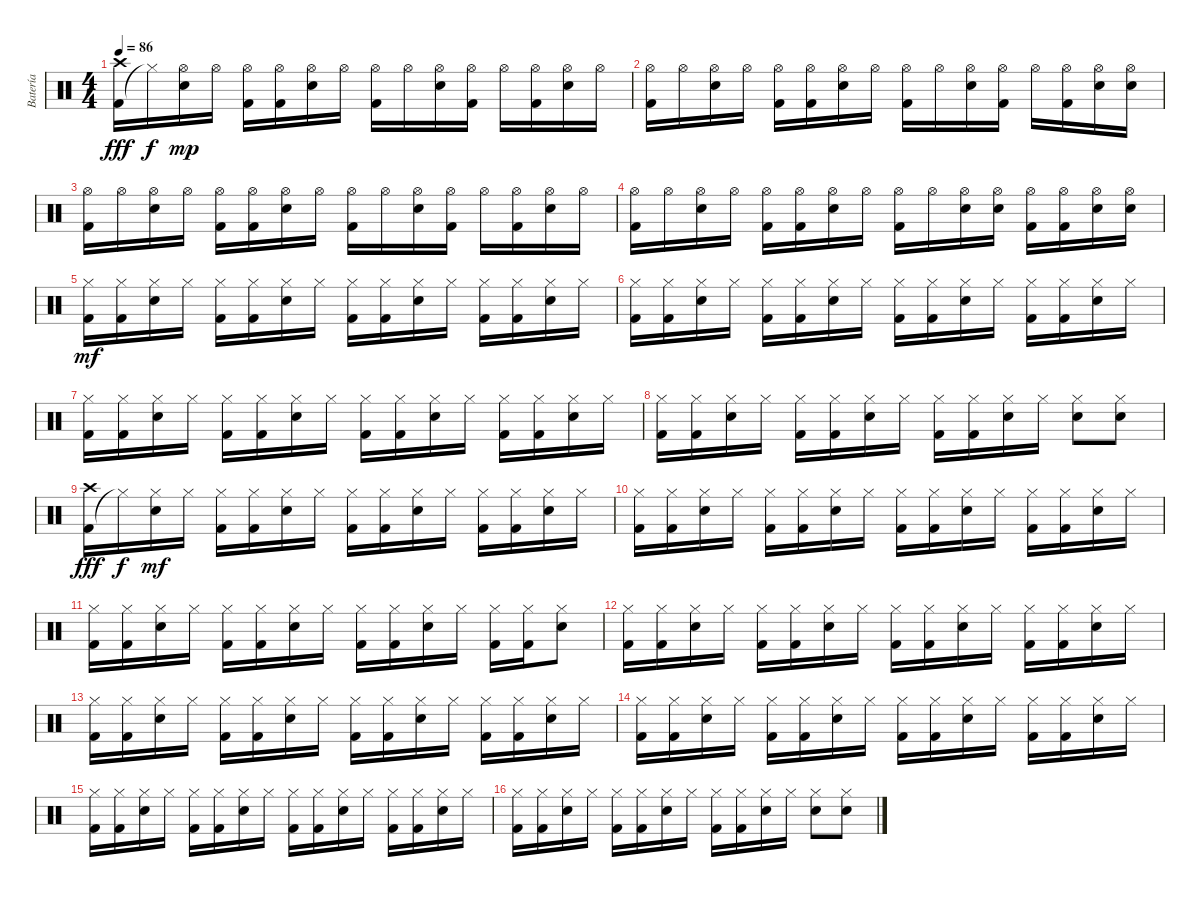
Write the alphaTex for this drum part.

\track ("Batería" "Batería") {instrument percussion}
\staff {score}
\articulation defaults
\ts (4 4)
\tempo 86
\clef neutral
\ks c
("Kick (hit) 2" "Crash high (hit)").16{dy fff} "Hi-Hat (closed)"{t}.16{dy f} ("Electric Snare (hit)" "Hi-Hat (open)").16{dy mp} "Hi-Hat (open)".16 ("Kick (hit) 2" "Hi-Hat (open)").16 ("Kick (hit) 2" "Hi-Hat (open)").16 ("Electric Snare (hit)" "Hi-Hat (open)").16 "Hi-Hat (open)".16 ("Kick (hit) 2" "Hi-Hat (open)").16 "Hi-Hat (open)".16 ("Electric Snare (hit)" "Hi-Hat (open)").16 ("Kick (hit) 2" "Hi-Hat (open)").16 "Hi-Hat (open)".16 ("Kick (hit) 2" "Hi-Hat (open)").16 ("Electric Snare (hit)" "Hi-Hat (open)").16 "Hi-Hat (open)".16 |
("Kick (hit) 2" "Hi-Hat (open)").16 "Hi-Hat (open)".16 ("Electric Snare (hit)" "Hi-Hat (open)").16 "Hi-Hat (open)".16 ("Kick (hit) 2" "Hi-Hat (open)").16 ("Kick (hit) 2" "Hi-Hat (open)").16 ("Electric Snare (hit)" "Hi-Hat (open)").16 "Hi-Hat (open)".16 ("Kick (hit) 2" "Hi-Hat (open)").16 "Hi-Hat (open)".16 ("Electric Snare (hit)" "Hi-Hat (open)").16 ("Kick (hit) 2" "Hi-Hat (open)").16 "Hi-Hat (open)".16 ("Kick (hit) 2" "Hi-Hat (open)").16 ("Electric Snare (hit)" "Hi-Hat (open)").16 ("Electric Snare (hit)" "Hi-Hat (open)").16 |
("Kick (hit) 2" "Hi-Hat (open)").16 "Hi-Hat (open)".16 ("Electric Snare (hit)" "Hi-Hat (open)").16 "Hi-Hat (open)".16 ("Kick (hit) 2" "Hi-Hat (open)").16 ("Kick (hit) 2" "Hi-Hat (open)").16 ("Electric Snare (hit)" "Hi-Hat (open)").16 "Hi-Hat (open)".16 ("Kick (hit) 2" "Hi-Hat (open)").16 "Hi-Hat (open)".16 ("Electric Snare (hit)" "Hi-Hat (open)").16 ("Kick (hit) 2" "Hi-Hat (open)").16 "Hi-Hat (open)".16 ("Kick (hit) 2" "Hi-Hat (open)").16 ("Electric Snare (hit)" "Hi-Hat (open)").16 "Hi-Hat (open)".16 |
("Kick (hit) 2" "Hi-Hat (open)").16 "Hi-Hat (open)".16 ("Electric Snare (hit)" "Hi-Hat (open)").16 "Hi-Hat (open)".16 ("Kick (hit) 2" "Hi-Hat (open)").16 ("Kick (hit) 2" "Hi-Hat (open)").16 ("Electric Snare (hit)" "Hi-Hat (open)").16 "Hi-Hat (open)".16 ("Kick (hit) 2" "Hi-Hat (open)").16 "Hi-Hat (open)".16 ("Electric Snare (hit)" "Hi-Hat (open)").16 ("Electric Snare (hit)" "Hi-Hat (open)").16 ("Kick (hit) 2" "Hi-Hat (open)").16 ("Kick (hit) 2" "Hi-Hat (open)").16 ("Electric Snare (hit)" "Hi-Hat (open)").16 ("Electric Snare (hit)" "Hi-Hat (open)").16 |
("Kick (hit) 2" "Hi-Hat (closed)").16{dy mf} ("Kick (hit) 2" "Hi-Hat (closed)").16 ("Electric Snare (hit)" "Hi-Hat (closed)").16 "Hi-Hat (closed)".16 ("Kick (hit) 2" "Hi-Hat (closed)").16 ("Kick (hit) 2" "Hi-Hat (closed)").16 ("Electric Snare (hit)" "Hi-Hat (closed)").16 "Hi-Hat (closed)".16 ("Kick (hit) 2" "Hi-Hat (closed)").16 ("Kick (hit) 2" "Hi-Hat (closed)").16 ("Electric Snare (hit)" "Hi-Hat (closed)").16 "Hi-Hat (closed)".16 ("Kick (hit) 2" "Hi-Hat (closed)").16 ("Kick (hit) 2" "Hi-Hat (closed)").16 ("Electric Snare (hit)" "Hi-Hat (closed)").16 "Hi-Hat (closed)".16 |
("Kick (hit) 2" "Hi-Hat (closed)").16 ("Kick (hit) 2" "Hi-Hat (closed)").16 ("Electric Snare (hit)" "Hi-Hat (closed)").16 "Hi-Hat (closed)".16 ("Kick (hit) 2" "Hi-Hat (closed)").16 ("Kick (hit) 2" "Hi-Hat (closed)").16 ("Electric Snare (hit)" "Hi-Hat (closed)").16 "Hi-Hat (closed)".16 ("Kick (hit) 2" "Hi-Hat (closed)").16 ("Kick (hit) 2" "Hi-Hat (closed)").16 ("Electric Snare (hit)" "Hi-Hat (closed)").16 "Hi-Hat (closed)".16 ("Kick (hit) 2" "Hi-Hat (closed)").16 ("Kick (hit) 2" "Hi-Hat (closed)").16 ("Electric Snare (hit)" "Hi-Hat (closed)").16 "Hi-Hat (closed)".16 |
("Kick (hit) 2" "Hi-Hat (closed)").16 ("Kick (hit) 2" "Hi-Hat (closed)").16 ("Electric Snare (hit)" "Hi-Hat (closed)").16 "Hi-Hat (closed)".16 ("Kick (hit) 2" "Hi-Hat (closed)").16 ("Kick (hit) 2" "Hi-Hat (closed)").16 ("Electric Snare (hit)" "Hi-Hat (closed)").16 "Hi-Hat (closed)".16 ("Kick (hit) 2" "Hi-Hat (closed)").16 ("Kick (hit) 2" "Hi-Hat (closed)").16 ("Electric Snare (hit)" "Hi-Hat (closed)").16 "Hi-Hat (closed)".16 ("Kick (hit) 2" "Hi-Hat (closed)").16 ("Kick (hit) 2" "Hi-Hat (closed)").16 ("Electric Snare (hit)" "Hi-Hat (closed)").16 "Hi-Hat (closed)".16 |
("Kick (hit) 2" "Hi-Hat (closed)").16 ("Kick (hit) 2" "Hi-Hat (closed)").16 ("Electric Snare (hit)" "Hi-Hat (closed)").16 "Hi-Hat (closed)".16 ("Kick (hit) 2" "Hi-Hat (closed)").16 ("Kick (hit) 2" "Hi-Hat (closed)").16 ("Electric Snare (hit)" "Hi-Hat (closed)").16 "Hi-Hat (closed)".16 ("Kick (hit) 2" "Hi-Hat (closed)").16 ("Kick (hit) 2" "Hi-Hat (closed)").16 ("Electric Snare (hit)" "Hi-Hat (closed)").16 "Hi-Hat (closed)".16 ("Electric Snare (hit)" "Hi-Hat (closed)").8 ("Electric Snare (hit)" "Hi-Hat (closed)").8 |
("Kick (hit) 2" "Crash high (hit)").16{dy fff} "Hi-Hat (closed)"{t}.16{dy f} ("Electric Snare (hit)" "Hi-Hat (closed)").16{dy mf} "Hi-Hat (closed)".16 ("Kick (hit) 2" "Hi-Hat (closed)").16 ("Kick (hit) 2" "Hi-Hat (closed)").16 ("Electric Snare (hit)" "Hi-Hat (closed)").16 "Hi-Hat (closed)".16 ("Kick (hit) 2" "Hi-Hat (closed)").16 ("Kick (hit) 2" "Hi-Hat (closed)").16 ("Electric Snare (hit)" "Hi-Hat (closed)").16 "Hi-Hat (closed)".16 ("Kick (hit) 2" "Hi-Hat (closed)").16 ("Kick (hit) 2" "Hi-Hat (closed)").16 ("Electric Snare (hit)" "Hi-Hat (closed)").16 "Hi-Hat (closed)".16 |
("Kick (hit) 2" "Hi-Hat (closed)").16 ("Kick (hit) 2" "Hi-Hat (closed)").16 ("Electric Snare (hit)" "Hi-Hat (closed)").16 "Hi-Hat (closed)".16 ("Kick (hit) 2" "Hi-Hat (closed)").16 ("Kick (hit) 2" "Hi-Hat (closed)").16 ("Electric Snare (hit)" "Hi-Hat (closed)").16 "Hi-Hat (closed)".16 ("Kick (hit) 2" "Hi-Hat (closed)").16 ("Kick (hit) 2" "Hi-Hat (closed)").16 ("Electric Snare (hit)" "Hi-Hat (closed)").16 "Hi-Hat (closed)".16 ("Kick (hit) 2" "Hi-Hat (closed)").16 ("Kick (hit) 2" "Hi-Hat (closed)").16 ("Electric Snare (hit)" "Hi-Hat (closed)").16 "Hi-Hat (closed)".16 |
("Kick (hit) 2" "Hi-Hat (closed)").16 ("Kick (hit) 2" "Hi-Hat (closed)").16 ("Electric Snare (hit)" "Hi-Hat (closed)").16 "Hi-Hat (closed)".16 ("Kick (hit) 2" "Hi-Hat (closed)").16 ("Kick (hit) 2" "Hi-Hat (closed)").16 ("Electric Snare (hit)" "Hi-Hat (closed)").16 "Hi-Hat (closed)".16 ("Kick (hit) 2" "Hi-Hat (closed)").16 ("Kick (hit) 2" "Hi-Hat (closed)").16 ("Electric Snare (hit)" "Hi-Hat (closed)").16 "Hi-Hat (closed)".16 ("Kick (hit) 2" "Hi-Hat (closed)").16 ("Kick (hit) 2" "Hi-Hat (closed)").16 ("Electric Snare (hit)" "Hi-Hat (closed)").8 |
("Kick (hit) 2" "Hi-Hat (closed)").16 ("Kick (hit) 2" "Hi-Hat (closed)").16 ("Electric Snare (hit)" "Hi-Hat (closed)").16 "Hi-Hat (closed)".16 ("Kick (hit) 2" "Hi-Hat (closed)").16 ("Kick (hit) 2" "Hi-Hat (closed)").16 ("Electric Snare (hit)" "Hi-Hat (closed)").16 "Hi-Hat (closed)".16 ("Kick (hit) 2" "Hi-Hat (closed)").16 ("Kick (hit) 2" "Hi-Hat (closed)").16 ("Electric Snare (hit)" "Hi-Hat (closed)").16 "Hi-Hat (closed)".16 ("Kick (hit) 2" "Hi-Hat (closed)").16 ("Kick (hit) 2" "Hi-Hat (closed)").16 ("Electric Snare (hit)" "Hi-Hat (closed)").16 "Hi-Hat (closed)".16 |
("Kick (hit) 2" "Hi-Hat (closed)").16 ("Kick (hit) 2" "Hi-Hat (closed)").16 ("Electric Snare (hit)" "Hi-Hat (closed)").16 "Hi-Hat (closed)".16 ("Kick (hit) 2" "Hi-Hat (closed)").16 ("Kick (hit) 2" "Hi-Hat (closed)").16 ("Electric Snare (hit)" "Hi-Hat (closed)").16 "Hi-Hat (closed)".16 ("Kick (hit) 2" "Hi-Hat (closed)").16 ("Kick (hit) 2" "Hi-Hat (closed)").16 ("Electric Snare (hit)" "Hi-Hat (closed)").16 "Hi-Hat (closed)".16 ("Kick (hit) 2" "Hi-Hat (closed)").16 ("Kick (hit) 2" "Hi-Hat (closed)").16 ("Electric Snare (hit)" "Hi-Hat (closed)").16 "Hi-Hat (closed)".16 |
("Kick (hit) 2" "Hi-Hat (closed)").16 ("Kick (hit) 2" "Hi-Hat (closed)").16 ("Electric Snare (hit)" "Hi-Hat (closed)").16 "Hi-Hat (closed)".16 ("Kick (hit) 2" "Hi-Hat (closed)").16 ("Kick (hit) 2" "Hi-Hat (closed)").16 ("Electric Snare (hit)" "Hi-Hat (closed)").16 "Hi-Hat (closed)".16 ("Kick (hit) 2" "Hi-Hat (closed)").16 ("Kick (hit) 2" "Hi-Hat (closed)").16 ("Electric Snare (hit)" "Hi-Hat (closed)").16 "Hi-Hat (closed)".16 ("Kick (hit) 2" "Hi-Hat (closed)").16 ("Kick (hit) 2" "Hi-Hat (closed)").16 ("Electric Snare (hit)" "Hi-Hat (closed)").16 "Hi-Hat (closed)".16 |
("Kick (hit) 2" "Hi-Hat (closed)").16 ("Kick (hit) 2" "Hi-Hat (closed)").16 ("Electric Snare (hit)" "Hi-Hat (closed)").16 "Hi-Hat (closed)".16 ("Kick (hit) 2" "Hi-Hat (closed)").16 ("Kick (hit) 2" "Hi-Hat (closed)").16 ("Electric Snare (hit)" "Hi-Hat (closed)").16 "Hi-Hat (closed)".16 ("Kick (hit) 2" "Hi-Hat (closed)").16 ("Kick (hit) 2" "Hi-Hat (closed)").16 ("Electric Snare (hit)" "Hi-Hat (closed)").16 "Hi-Hat (closed)".16 ("Kick (hit) 2" "Hi-Hat (closed)").16 ("Kick (hit) 2" "Hi-Hat (closed)").16 ("Electric Snare (hit)" "Hi-Hat (closed)").16 "Hi-Hat (closed)".16 |
("Kick (hit) 2" "Hi-Hat (closed)").16 ("Kick (hit) 2" "Hi-Hat (closed)").16 ("Electric Snare (hit)" "Hi-Hat (closed)").16 "Hi-Hat (closed)".16 ("Kick (hit) 2" "Hi-Hat (closed)").16 ("Kick (hit) 2" "Hi-Hat (closed)").16 ("Electric Snare (hit)" "Hi-Hat (closed)").16 "Hi-Hat (closed)".16 ("Kick (hit) 2" "Hi-Hat (closed)").16 ("Kick (hit) 2" "Hi-Hat (closed)").16 ("Electric Snare (hit)" "Hi-Hat (closed)").16 "Hi-Hat (closed)".16 ("Electric Snare (hit)" "Hi-Hat (closed)").8 ("Electric Snare (hit)" "Hi-Hat (closed)").8
